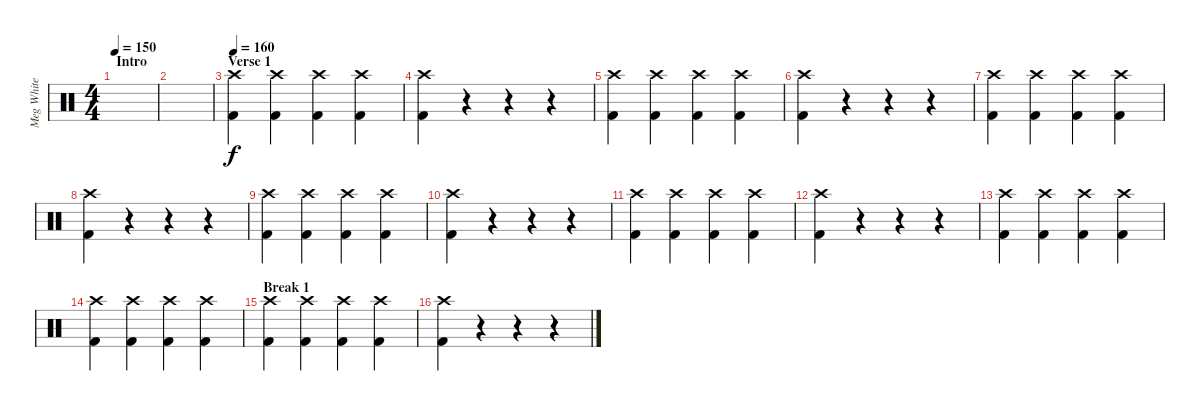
\track ("Meg White - Drums" "Meg White ") {instrument percussion}
\staff {score}
\articulation defaults
\ts (4 4)
\section ("" "Intro")
\tempo 150
\clef neutral
\ks c
|
|
\section ("" "Verse 1")
\tempo 160
("Crash high (hit)" "Kick (hit) 2").4 ("Crash high (hit)" "Kick (hit) 2").4 ("Crash high (hit)" "Kick (hit) 2").4 ("Crash high (hit)" "Kick (hit) 2").4 |
("Crash high (hit)" "Kick (hit) 2").4 r.4 r.4 r.4 |
("Crash high (hit)" "Kick (hit) 2").4 ("Crash high (hit)" "Kick (hit) 2").4 ("Crash high (hit)" "Kick (hit) 2").4 ("Crash high (hit)" "Kick (hit) 2").4 |
("Crash high (hit)" "Kick (hit) 2").4 r.4 r.4 r.4 |
("Crash high (hit)" "Kick (hit) 2").4 ("Crash high (hit)" "Kick (hit) 2").4 ("Crash high (hit)" "Kick (hit) 2").4 ("Crash high (hit)" "Kick (hit) 2").4 |
("Crash high (hit)" "Kick (hit) 2").4 r.4 r.4 r.4 |
("Crash high (hit)" "Kick (hit) 2").4 ("Crash high (hit)" "Kick (hit) 2").4 ("Crash high (hit)" "Kick (hit) 2").4 ("Crash high (hit)" "Kick (hit) 2").4 |
("Crash high (hit)" "Kick (hit) 2").4 r.4 r.4 r.4 |
("Crash high (hit)" "Kick (hit) 2").4 ("Crash high (hit)" "Kick (hit) 2").4 ("Crash high (hit)" "Kick (hit) 2").4 ("Crash high (hit)" "Kick (hit) 2").4 |
("Crash high (hit)" "Kick (hit) 2").4 r.4 r.4 r.4 |
("Crash high (hit)" "Kick (hit) 2").4 ("Crash high (hit)" "Kick (hit) 2").4 ("Crash high (hit)" "Kick (hit) 2").4 ("Crash high (hit)" "Kick (hit) 2").4 |
("Crash high (hit)" "Kick (hit) 2").4 ("Crash high (hit)" "Kick (hit) 2").4 ("Crash high (hit)" "Kick (hit) 2").4 ("Crash high (hit)" "Kick (hit) 2").4 |
\section ("" "Break 1")
("Crash high (hit)" "Kick (hit) 2").4 ("Crash high (hit)" "Kick (hit) 2").4 ("Crash high (hit)" "Kick (hit) 2").4 ("Crash high (hit)" "Kick (hit) 2").4 |
("Crash high (hit)" "Kick (hit) 2").4 r.4 r.4 r.4
